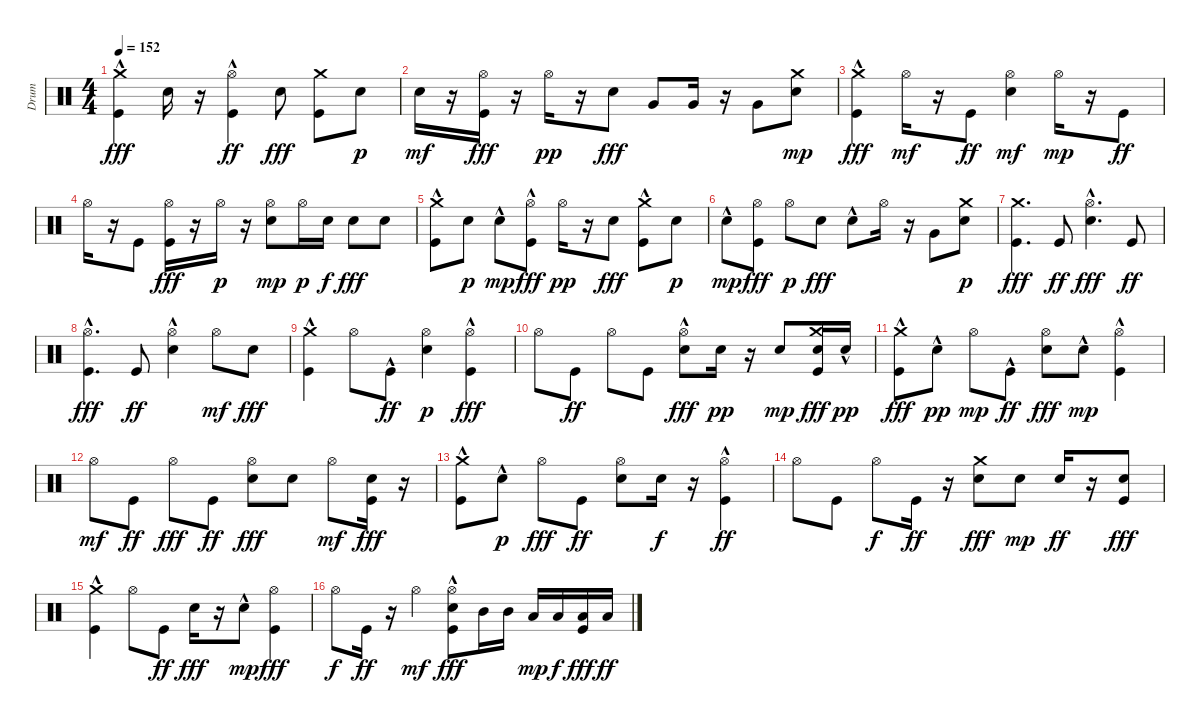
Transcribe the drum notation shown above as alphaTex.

\track ("Drum" "Drum") {instrument percussion}
\staff {score}
\articulation defaults
\ts (4 4)
\tempo 152
\clef neutral
\ks c
("Kick (hit)"{hac} "Crash medium (hit)"{hac}).4{dy fff} "Electric Snare (hit)".16 r.16 ("Kick (hit)"{hac} "Hi-Hat (open)").4{dy ff} "Electric Snare (hit)".8{dy fff} ("Kick (hit)" "Crash medium (hit)").8 "Electric Snare (hit)".8{dy p} |
"Electric Snare (hit)".16{dy mf} r.16 ("Kick (hit)" "Hi-Hat (open)").16{dy fff} r.16 "Hi-Hat (open)".16{dy pp} r.16 "Electric Snare (hit)".8{dy fff} "Very Low Tom (hit)".8 "Very Low Tom (hit)".16 r.16 "Very Low Tom (hit)".8 ("Electric Snare (hit)" "Crash medium (hit)").8{dy mp} |
("Kick (hit)"{hac} "Crash medium (hit)").4{dy fff} "Hi-Hat (open)".16{dy mf} r.16 "Kick (hit)".8{dy ff} ("Electric Snare (hit)" "Hi-Hat (open)").4{dy mf} "Hi-Hat (open)".16{dy mp} r.16 "Kick (hit)".8{dy ff} |
"Hi-Hat (open)".16 r.16 "Kick (hit)".8 ("Kick (hit)" "Hi-Hat (open)").16{dy fff} r.16 "Hi-Hat (open)".16{dy p} r.16 ("Electric Snare (hit)" "Hi-Hat (open)").8{dy mp} "Hi-Hat (open)".16{dy p} "Electric Snare (hit)".16{dy f} "Electric Snare (hit)".8{dy fff} "Electric Snare (hit)".8 |
("Kick (hit)"{hac} "Crash medium (hit)").8 "Electric Snare (hit)".8{dy p} "Electric Snare (hit)"{hac}.8{dy mp} ("Kick (hit)"{hac} "Hi-Hat (open)").8{dy fff} "Hi-Hat (open)".16{dy pp} r.16 "Electric Snare (hit)".8{dy fff} ("Kick (hit)"{hac} "Crash medium (hit)").8 "Electric Snare (hit)".8{dy p} |
"Electric Snare (hit)"{hac}.8{dy mp} ("Kick (hit)" "Hi-Hat (open)").8{dy fff} "Hi-Hat (open)".8{dy p} "Electric Snare (hit)".8{dy fff} "Electric Snare (hit)"{hac}.8 "Hi-Hat (open)".16 r.16 "Very Low Tom (hit)".8 ("Electric Snare (hit)" "Crash medium (hit)").8{dy p} |
("Kick (hit)" "Crash medium (hit)").4{d dy fff} "Kick (hit)".8{dy ff} ("Electric Snare (hit)"{hac} "Hi-Hat (open)").4{d dy fff} "Kick (hit)".8{dy ff} |
("Kick (hit)"{hac} "Hi-Hat (open)").4{d dy fff} "Kick (hit)".8{dy ff} ("Electric Snare (hit)"{hac} "Hi-Hat (open)").4 "Hi-Hat (open)".8{dy mf} "Electric Snare (hit)".8{dy fff} |
("Kick (hit)"{hac} "Crash medium (hit)").4 "Hi-Hat (open)".8 "Kick (hit)"{hac}.8{dy ff} ("Electric Snare (hit)" "Hi-Hat (open)").4{dy p} ("Kick (hit)"{hac} "Hi-Hat (open)").4{dy fff} |
"Hi-Hat (open)".8 "Kick (hit)".8{dy ff} "Hi-Hat (open)".8 "Kick (hit)".8 ("Electric Snare (hit)" "Hi-Hat (open)"{hac}).8{dy fff} "Electric Snare (hit)".16{dy pp} r.16 "Electric Snare (hit)".8{dy mp} ("Kick (hit)" "Electric Snare (hit)" "Crash medium (hit)").16{dy fff} "Electric Snare (hit)"{hac}.16{dy pp} |
("Kick (hit)"{hac} "Crash medium (hit)").8{dy fff} "Electric Snare (hit)"{hac}.8{dy pp} "Hi-Hat (open)".8{dy mp} "Kick (hit)"{hac}.8{dy ff} ("Electric Snare (hit)" "Hi-Hat (open)").8{dy fff} "Electric Snare (hit)"{hac}.8{dy mp} ("Kick (hit)"{hac} "Hi-Hat (open)").4 |
"Hi-Hat (open)".8{dy mf} "Kick (hit)".8{dy ff} "Hi-Hat (open)".8{dy fff} "Kick (hit)".8{dy ff} ("Electric Snare (hit)" "Hi-Hat (open)").8{dy fff} "Electric Snare (hit)".8 "Hi-Hat (open)".8{dy mf} ("Kick (hit)" "Electric Snare (hit)").16{dy fff} r.16 |
("Kick (hit)"{hac} "Crash medium (hit)").8 "Electric Snare (hit)"{hac}.8{dy p} "Hi-Hat (open)".8{dy fff} "Kick (hit)".8{dy ff} ("Electric Snare (hit)" "Hi-Hat (open)").8 "Electric Snare (hit)".16{dy f} r.16 ("Kick (hit)"{hac} "Hi-Hat (open)").4{dy ff} |
"Hi-Hat (open)".8 "Kick (hit)".8 "Hi-Hat (open)".8{dy f} "Kick (hit)".16{dy ff} r.16 ("Electric Snare (hit)" "Crash medium (hit)").8{dy fff} "Electric Snare (hit)".8{dy mp} "Electric Snare (hit)".16{dy ff} r.16 ("Kick (hit)" "Electric Snare (hit)").8{dy fff} |
("Kick (hit)"{hac} "Crash medium (hit)").4 "Hi-Hat (open)".8 "Kick (hit)".8{dy ff} "Electric Snare (hit)".16{dy fff} r.16 "Electric Snare (hit)"{hac}.8{dy mp} ("Kick (hit)" "Hi-Hat (open)").4{dy fff} |
"Hi-Hat (open)".8{dy f} "Kick (hit)".16{dy ff} r.16 "Hi-Hat (open)".4{dy mf} ("Kick (hit)" "Electric Snare (hit)" "Hi-Hat (open)"{hac}).8{dy fff} "Mid Tom (hit)".16 "Mid Tom (hit)".16 "Low Tom (hit)".16{dy mp} "Low Tom (hit)".16{dy f} ("Kick (hit)" "Low Floor Tom (hit)").16{dy fff} "Low Floor Tom (hit)".16{dy ff}
